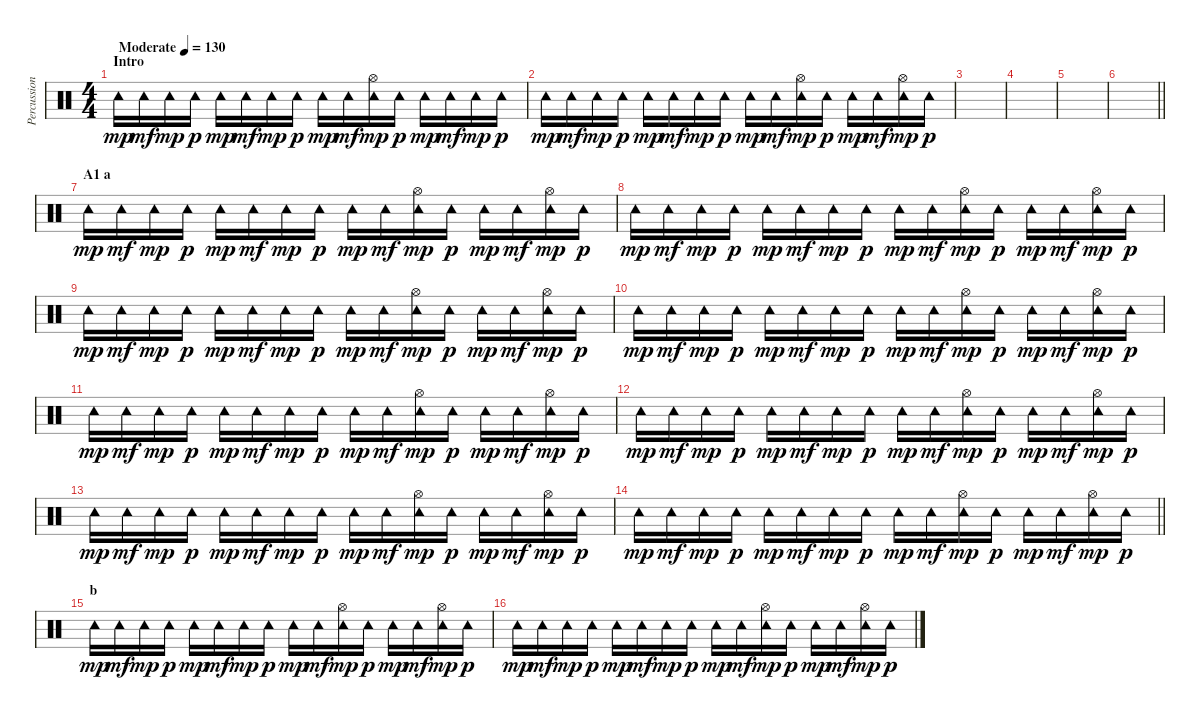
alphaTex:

\track ("Percussion (Programmed)" "Percussion") {instrument percussion}
\staff {score}
\articulation defaults
\ts (4 4)
\section ("" "Intro")
\tempo (130 "Moderate")
\clef neutral
\ks c "Tambourine (hit)".16{dy mp} "Tambourine (hit)".16{dy mf} "Tambourine (hit)".16{dy mp} "Tambourine (hit)".16{dy p} "Tambourine (hit)".16{dy mp} "Tambourine (hit)".16{dy mf} "Tambourine (hit)".16{dy mp} "Tambourine (hit)".16{dy p} "Tambourine (hit)".16{dy mp} "Tambourine (hit)".16{dy mf}
("Tambourine (hit)" "Hi-Hat (open)").16{dy mp} "Tambourine (hit)".16{dy p} "Tambourine (hit)".16{dy mp} "Tambourine (hit)".16{dy mf} "Tambourine (hit)".16{dy mp} "Tambourine (hit)".16{dy p} |
"Tambourine (hit)".16{dy mp} "Tambourine (hit)".16{dy mf} "Tambourine (hit)".16{dy mp} "Tambourine (hit)".16{dy p} "Tambourine (hit)".16{dy mp} "Tambourine (hit)".16{dy mf} "Tambourine (hit)".16{dy mp} "Tambourine (hit)".16{dy p} "Tambourine (hit)".16{dy mp} "Tambourine (hit)".16{dy mf} ("Tambourine (hit)" "Hi-Hat (open)").16{dy mp} "Tambourine (hit)".16{dy p} "Tambourine (hit)".16{dy mp} "Tambourine (hit)".16{dy mf} ("Tambourine (hit)" "Hi-Hat (open)").16{dy mp} "Tambourine (hit)".16{dy p} |
|
|
|
\barLineRight lightlight
|
\section ("" "A1 a")
"Tambourine (hit)".16{dy mp} "Tambourine (hit)".16{dy mf} "Tambourine (hit)".16{dy mp} "Tambourine (hit)".16{dy p} "Tambourine (hit)".16{dy mp} "Tambourine (hit)".16{dy mf} "Tambourine (hit)".16{dy mp} "Tambourine (hit)".16{dy p} "Tambourine (hit)".16{dy mp} "Tambourine (hit)".16{dy mf} ("Tambourine (hit)" "Hi-Hat (open)").16{dy mp} "Tambourine (hit)".16{dy p} "Tambourine (hit)".16{dy mp} "Tambourine (hit)".16{dy mf} ("Tambourine (hit)" "Hi-Hat (open)").16{dy mp} "Tambourine (hit)".16{dy p} |
"Tambourine (hit)".16{dy mp} "Tambourine (hit)".16{dy mf} "Tambourine (hit)".16{dy mp} "Tambourine (hit)".16{dy p} "Tambourine (hit)".16{dy mp} "Tambourine (hit)".16{dy mf} "Tambourine (hit)".16{dy mp} "Tambourine (hit)".16{dy p} "Tambourine (hit)".16{dy mp} "Tambourine (hit)".16{dy mf} ("Tambourine (hit)" "Hi-Hat (open)").16{dy mp} "Tambourine (hit)".16{dy p} "Tambourine (hit)".16{dy mp} "Tambourine (hit)".16{dy mf} ("Tambourine (hit)" "Hi-Hat (open)").16{dy mp} "Tambourine (hit)".16{dy p} |
"Tambourine (hit)".16{dy mp} "Tambourine (hit)".16{dy mf} "Tambourine (hit)".16{dy mp} "Tambourine (hit)".16{dy p} "Tambourine (hit)".16{dy mp} "Tambourine (hit)".16{dy mf} "Tambourine (hit)".16{dy mp} "Tambourine (hit)".16{dy p} "Tambourine (hit)".16{dy mp} "Tambourine (hit)".16{dy mf} ("Tambourine (hit)" "Hi-Hat (open)").16{dy mp} "Tambourine (hit)".16{dy p} "Tambourine (hit)".16{dy mp} "Tambourine (hit)".16{dy mf} ("Tambourine (hit)" "Hi-Hat (open)").16{dy mp} "Tambourine (hit)".16{dy p} |
"Tambourine (hit)".16{dy mp} "Tambourine (hit)".16{dy mf} "Tambourine (hit)".16{dy mp} "Tambourine (hit)".16{dy p} "Tambourine (hit)".16{dy mp} "Tambourine (hit)".16{dy mf} "Tambourine (hit)".16{dy mp} "Tambourine (hit)".16{dy p} "Tambourine (hit)".16{dy mp} "Tambourine (hit)".16{dy mf} ("Tambourine (hit)" "Hi-Hat (open)").16{dy mp} "Tambourine (hit)".16{dy p} "Tambourine (hit)".16{dy mp} "Tambourine (hit)".16{dy mf} ("Tambourine (hit)" "Hi-Hat (open)").16{dy mp} "Tambourine (hit)".16{dy p} |
"Tambourine (hit)".16{dy mp} "Tambourine (hit)".16{dy mf} "Tambourine (hit)".16{dy mp} "Tambourine (hit)".16{dy p} "Tambourine (hit)".16{dy mp} "Tambourine (hit)".16{dy mf} "Tambourine (hit)".16{dy mp} "Tambourine (hit)".16{dy p} "Tambourine (hit)".16{dy mp} "Tambourine (hit)".16{dy mf} ("Tambourine (hit)" "Hi-Hat (open)").16{dy mp} "Tambourine (hit)".16{dy p} "Tambourine (hit)".16{dy mp} "Tambourine (hit)".16{dy mf} ("Tambourine (hit)" "Hi-Hat (open)").16{dy mp} "Tambourine (hit)".16{dy p} |
"Tambourine (hit)".16{dy mp} "Tambourine (hit)".16{dy mf} "Tambourine (hit)".16{dy mp} "Tambourine (hit)".16{dy p} "Tambourine (hit)".16{dy mp} "Tambourine (hit)".16{dy mf} "Tambourine (hit)".16{dy mp} "Tambourine (hit)".16{dy p} "Tambourine (hit)".16{dy mp} "Tambourine (hit)".16{dy mf} ("Tambourine (hit)" "Hi-Hat (open)").16{dy mp} "Tambourine (hit)".16{dy p} "Tambourine (hit)".16{dy mp} "Tambourine (hit)".16{dy mf} ("Tambourine (hit)" "Hi-Hat (open)").16{dy mp} "Tambourine (hit)".16{dy p} |
"Tambourine (hit)".16{dy mp} "Tambourine (hit)".16{dy mf} "Tambourine (hit)".16{dy mp} "Tambourine (hit)".16{dy p} "Tambourine (hit)".16{dy mp} "Tambourine (hit)".16{dy mf} "Tambourine (hit)".16{dy mp} "Tambourine (hit)".16{dy p} "Tambourine (hit)".16{dy mp} "Tambourine (hit)".16{dy mf} ("Tambourine (hit)" "Hi-Hat (open)").16{dy mp} "Tambourine (hit)".16{dy p} "Tambourine (hit)".16{dy mp} "Tambourine (hit)".16{dy mf} ("Tambourine (hit)" "Hi-Hat (open)").16{dy mp} "Tambourine (hit)".16{dy p} |
\barLineRight lightlight "Tambourine (hit)".16{dy mp} "Tambourine (hit)".16{dy mf} "Tambourine (hit)".16{dy mp} "Tambourine (hit)".16{dy p} "Tambourine (hit)".16{dy mp} "Tambourine (hit)".16{dy mf} "Tambourine (hit)".16{dy mp} "Tambourine (hit)".16{dy p} "Tambourine (hit)".16{dy mp} "Tambourine (hit)".16{dy mf}
("Tambourine (hit)" "Hi-Hat (open)").16{dy mp} "Tambourine (hit)".16{dy p} "Tambourine (hit)".16{dy mp} "Tambourine (hit)".16{dy mf} ("Tambourine (hit)" "Hi-Hat (open)").16{dy mp} "Tambourine (hit)".16{dy p} |
\section ("" "b")
"Tambourine (hit)".16{dy mp} "Tambourine (hit)".16{dy mf} "Tambourine (hit)".16{dy mp} "Tambourine (hit)".16{dy p} "Tambourine (hit)".16{dy mp} "Tambourine (hit)".16{dy mf} "Tambourine (hit)".16{dy mp} "Tambourine (hit)".16{dy p} "Tambourine (hit)".16{dy mp} "Tambourine (hit)".16{dy mf} ("Tambourine (hit)" "Hi-Hat (open)").16{dy mp} "Tambourine (hit)".16{dy p} "Tambourine (hit)".16{dy mp} "Tambourine (hit)".16{dy mf} ("Tambourine (hit)" "Hi-Hat (open)").16{dy mp} "Tambourine (hit)".16{dy p} |
"Tambourine (hit)".16{dy mp} "Tambourine (hit)".16{dy mf} "Tambourine (hit)".16{dy mp} "Tambourine (hit)".16{dy p} "Tambourine (hit)".16{dy mp} "Tambourine (hit)".16{dy mf} "Tambourine (hit)".16{dy mp} "Tambourine (hit)".16{dy p} "Tambourine (hit)".16{dy mp} "Tambourine (hit)".16{dy mf} ("Tambourine (hit)" "Hi-Hat (open)").16{dy mp} "Tambourine (hit)".16{dy p} "Tambourine (hit)".16{dy mp} "Tambourine (hit)".16{dy mf} ("Tambourine (hit)" "Hi-Hat (open)").16{dy mp} "Tambourine (hit)".16{dy p}
